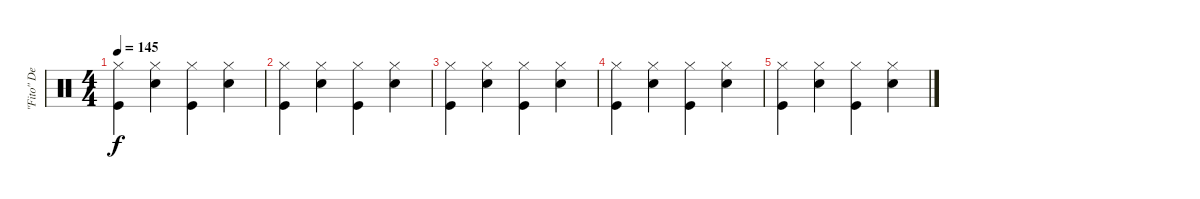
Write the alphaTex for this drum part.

\track ("\"Fito\" De La Parra" "\"Fito\" De ") {instrument percussion}
\staff {score}
\articulation defaults
\ts (4 4)
\tempo 145
\clef neutral
\ks c
("Hi-Hat (closed)" "Kick (hit)").4{dy f} ("Hi-Hat (closed)" "Snare (hit) 2").4 ("Hi-Hat (closed)" "Kick (hit)").4 ("Hi-Hat (closed)" "Snare (hit) 2").4 |
("Hi-Hat (closed)" "Kick (hit)").4 ("Hi-Hat (closed)" "Snare (hit) 2").4 ("Hi-Hat (closed)" "Kick (hit)").4 ("Hi-Hat (closed)" "Snare (hit) 2").4 |
("Hi-Hat (closed)" "Kick (hit)").4 ("Hi-Hat (closed)" "Snare (hit) 2").4 ("Hi-Hat (closed)" "Kick (hit)").4 ("Hi-Hat (closed)" "Snare (hit) 2").4 |
("Hi-Hat (closed)" "Kick (hit)").4 ("Hi-Hat (closed)" "Snare (hit) 2").4 ("Hi-Hat (closed)" "Kick (hit)").4 ("Hi-Hat (closed)" "Snare (hit) 2").4 |
("Hi-Hat (closed)" "Kick (hit)").4 ("Hi-Hat (closed)" "Snare (hit) 2").4 ("Hi-Hat (closed)" "Kick (hit)").4 ("Hi-Hat (closed)" "Snare (hit) 2").4
